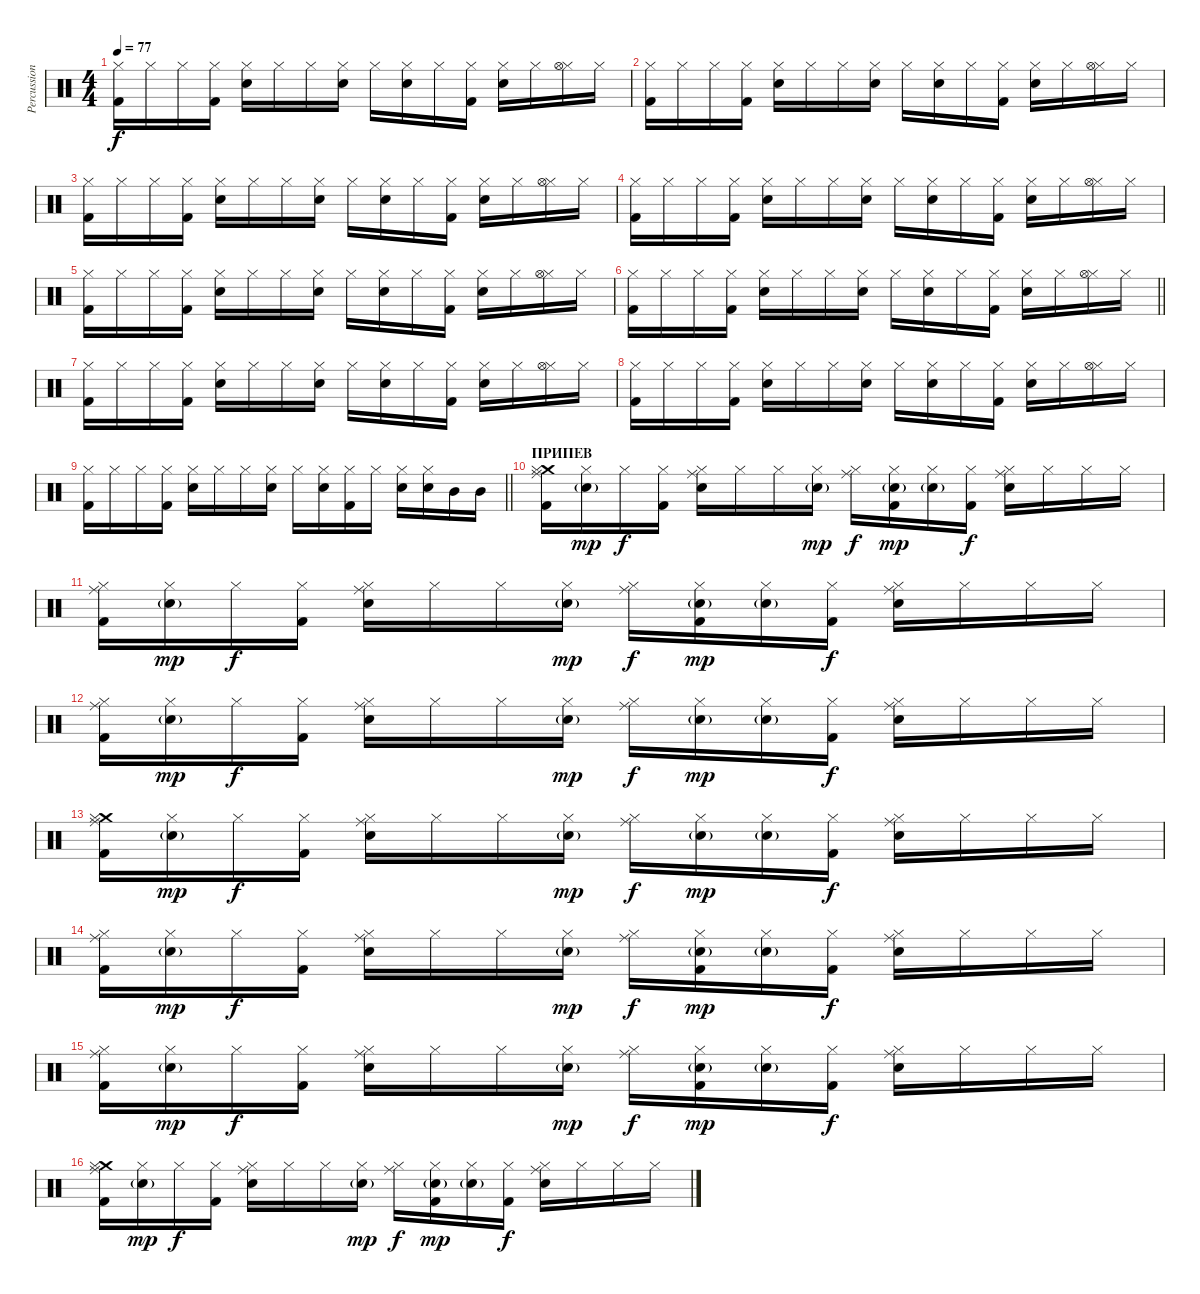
\track ("Percussion" "Percussion") {instrument percussion}
\staff {score}
\articulation defaults
\ts (4 4)
\tempo 77
\clef neutral
\ks c
("Hi-Hat (closed)" "Kick (hit) 2").16{dy f} "Hi-Hat (closed)".16 "Hi-Hat (closed)".16 ("Hi-Hat (closed)" "Kick (hit) 2").16 ("Hi-Hat (closed)" "Electric Snare (hit)").16 "Hi-Hat (closed)".16 "Hi-Hat (closed)".16 ("Hi-Hat (closed)" "Electric Snare (hit)").16 "Hi-Hat (closed)".16 ("Hi-Hat (closed)" "Electric Snare (hit)").16 "Hi-Hat (closed)".16 ("Hi-Hat (closed)" "Kick (hit) 2").16 ("Hi-Hat (closed)" "Electric Snare (hit)").16 "Hi-Hat (closed)".16 ("Hi-Hat (closed)" "Hi-Hat (open)").16 "Hi-Hat (closed)".16 |
("Hi-Hat (closed)" "Kick (hit) 2").16 "Hi-Hat (closed)".16 "Hi-Hat (closed)".16 ("Hi-Hat (closed)" "Kick (hit) 2").16 ("Hi-Hat (closed)" "Electric Snare (hit)").16 "Hi-Hat (closed)".16 "Hi-Hat (closed)".16 ("Hi-Hat (closed)" "Electric Snare (hit)").16 "Hi-Hat (closed)".16 ("Hi-Hat (closed)" "Electric Snare (hit)").16 "Hi-Hat (closed)".16 ("Hi-Hat (closed)" "Kick (hit) 2").16 ("Hi-Hat (closed)" "Electric Snare (hit)").16 "Hi-Hat (closed)".16 ("Hi-Hat (closed)" "Hi-Hat (open)").16 "Hi-Hat (closed)".16 |
("Hi-Hat (closed)" "Kick (hit) 2").16 "Hi-Hat (closed)".16 "Hi-Hat (closed)".16 ("Hi-Hat (closed)" "Kick (hit) 2").16 ("Hi-Hat (closed)" "Electric Snare (hit)").16 "Hi-Hat (closed)".16 "Hi-Hat (closed)".16 ("Hi-Hat (closed)" "Electric Snare (hit)").16 "Hi-Hat (closed)".16 ("Hi-Hat (closed)" "Electric Snare (hit)").16 "Hi-Hat (closed)".16 ("Hi-Hat (closed)" "Kick (hit) 2").16 ("Hi-Hat (closed)" "Electric Snare (hit)").16 "Hi-Hat (closed)".16 ("Hi-Hat (closed)" "Hi-Hat (open)").16 "Hi-Hat (closed)".16 |
("Hi-Hat (closed)" "Kick (hit) 2").16 "Hi-Hat (closed)".16 "Hi-Hat (closed)".16 ("Hi-Hat (closed)" "Kick (hit) 2").16 ("Hi-Hat (closed)" "Electric Snare (hit)").16 "Hi-Hat (closed)".16 "Hi-Hat (closed)".16 ("Hi-Hat (closed)" "Electric Snare (hit)").16 "Hi-Hat (closed)".16 ("Hi-Hat (closed)" "Electric Snare (hit)").16 "Hi-Hat (closed)".16 ("Hi-Hat (closed)" "Kick (hit) 2").16 ("Hi-Hat (closed)" "Electric Snare (hit)").16 "Hi-Hat (closed)".16 ("Hi-Hat (closed)" "Hi-Hat (open)").16 "Hi-Hat (closed)".16 |
("Hi-Hat (closed)" "Kick (hit) 2").16 "Hi-Hat (closed)".16 "Hi-Hat (closed)".16 ("Hi-Hat (closed)" "Kick (hit) 2").16 ("Hi-Hat (closed)" "Electric Snare (hit)").16 "Hi-Hat (closed)".16 "Hi-Hat (closed)".16 ("Hi-Hat (closed)" "Electric Snare (hit)").16 "Hi-Hat (closed)".16 ("Hi-Hat (closed)" "Electric Snare (hit)").16 "Hi-Hat (closed)".16 ("Hi-Hat (closed)" "Kick (hit) 2").16 ("Hi-Hat (closed)" "Electric Snare (hit)").16 "Hi-Hat (closed)".16 ("Hi-Hat (closed)" "Hi-Hat (open)").16 "Hi-Hat (closed)".16 |
\barLineRight lightlight
("Hi-Hat (closed)" "Kick (hit) 2").16 "Hi-Hat (closed)".16 "Hi-Hat (closed)".16 ("Hi-Hat (closed)" "Kick (hit) 2").16 ("Hi-Hat (closed)" "Electric Snare (hit)").16 "Hi-Hat (closed)".16 "Hi-Hat (closed)".16 ("Hi-Hat (closed)" "Electric Snare (hit)").16 "Hi-Hat (closed)".16 ("Hi-Hat (closed)" "Electric Snare (hit)").16 "Hi-Hat (closed)".16 ("Hi-Hat (closed)" "Kick (hit) 2").16 ("Hi-Hat (closed)" "Electric Snare (hit)").16 "Hi-Hat (closed)".16 ("Hi-Hat (closed)" "Hi-Hat (open)").16 "Hi-Hat (closed)".16 |
("Hi-Hat (closed)" "Kick (hit) 2").16 "Hi-Hat (closed)".16 "Hi-Hat (closed)".16 ("Hi-Hat (closed)" "Kick (hit) 2").16 ("Hi-Hat (closed)" "Electric Snare (hit)").16 "Hi-Hat (closed)".16 "Hi-Hat (closed)".16 ("Hi-Hat (closed)" "Electric Snare (hit)").16 "Hi-Hat (closed)".16 ("Hi-Hat (closed)" "Electric Snare (hit)").16 "Hi-Hat (closed)".16 ("Hi-Hat (closed)" "Kick (hit) 2").16 ("Hi-Hat (closed)" "Electric Snare (hit)").16 "Hi-Hat (closed)".16 ("Hi-Hat (closed)" "Hi-Hat (open)").16 "Hi-Hat (closed)".16 |
("Hi-Hat (closed)" "Kick (hit) 2").16 "Hi-Hat (closed)".16 "Hi-Hat (closed)".16 ("Hi-Hat (closed)" "Kick (hit) 2").16 ("Hi-Hat (closed)" "Electric Snare (hit)").16 "Hi-Hat (closed)".16 "Hi-Hat (closed)".16 ("Hi-Hat (closed)" "Electric Snare (hit)").16 "Hi-Hat (closed)".16 ("Hi-Hat (closed)" "Electric Snare (hit)").16 "Hi-Hat (closed)".16 ("Hi-Hat (closed)" "Kick (hit) 2").16 ("Hi-Hat (closed)" "Electric Snare (hit)").16 "Hi-Hat (closed)".16 ("Hi-Hat (closed)" "Hi-Hat (open)").16 "Hi-Hat (closed)".16 |
\barLineRight lightlight
("Hi-Hat (closed)" "Kick (hit) 2").16 "Hi-Hat (closed)".16 "Hi-Hat (closed)".16 ("Hi-Hat (closed)" "Kick (hit) 2").16 ("Hi-Hat (closed)" "Electric Snare (hit)").16 "Hi-Hat (closed)".16 "Hi-Hat (closed)".16 ("Hi-Hat (closed)" "Electric Snare (hit)").16 "Hi-Hat (closed)".16 ("Hi-Hat (closed)" "Electric Snare (hit)").16 ("Hi-Hat (closed)" "Kick (hit) 2").16 "Hi-Hat (closed)".16 ("Hi-Hat (closed)" "Electric Snare (hit)").16 ("Hi-Hat (closed)" "Electric Snare (hit)").16 "Mid Tom (hit)".16 "Mid Tom (hit)".16 |
\section ("" "ПРИПЕВ")
("Crash medium (hit)" "Hi-Hat (closed)" "Ride (middle)" "Kick (hit) 2").16 ("Hi-Hat (closed)" "Electric Snare (hit)"{g}).16{dy mp} "Hi-Hat (closed)".16{dy f} ("Hi-Hat (closed)" "Kick (hit) 2").16 ("Hi-Hat (closed)" "Ride (middle)" "Electric Snare (hit)").16 "Hi-Hat (closed)".16 "Hi-Hat (closed)".16 ("Hi-Hat (closed)" "Electric Snare (hit)"{g}).16{dy mp} ("Hi-Hat (closed)" "Ride (middle)").16{dy f} ("Hi-Hat (closed)" "Electric Snare (hit)"{g} "Kick (hit) 2").16{dy mp} ("Hi-Hat (closed)" "Electric Snare (hit)"{g}).16 ("Hi-Hat (closed)" "Kick (hit) 2").16{dy f} ("Hi-Hat (closed)" "Ride (middle)" "Electric Snare (hit)").16 "Hi-Hat (closed)".16 "Hi-Hat (closed)".16 "Hi-Hat (closed)".16 |
("Hi-Hat (closed)" "Ride (middle)" "Kick (hit) 2").16 ("Hi-Hat (closed)" "Electric Snare (hit)"{g}).16{dy mp} "Hi-Hat (closed)".16{dy f} ("Hi-Hat (closed)" "Kick (hit) 2").16 ("Hi-Hat (closed)" "Ride (middle)" "Electric Snare (hit)").16 "Hi-Hat (closed)".16 "Hi-Hat (closed)".16 ("Hi-Hat (closed)" "Electric Snare (hit)"{g}).16{dy mp} ("Hi-Hat (closed)" "Ride (middle)").16{dy f} ("Hi-Hat (closed)" "Electric Snare (hit)"{g} "Kick (hit) 2").16{dy mp} ("Hi-Hat (closed)" "Electric Snare (hit)"{g}).16 ("Hi-Hat (closed)" "Kick (hit) 2").16{dy f} ("Hi-Hat (closed)" "Ride (middle)" "Electric Snare (hit)").16 "Hi-Hat (closed)".16 "Hi-Hat (closed)".16 "Hi-Hat (closed)".16 |
("Hi-Hat (closed)" "Ride (middle)" "Kick (hit) 2").16 ("Hi-Hat (closed)" "Electric Snare (hit)"{g}).16{dy mp} "Hi-Hat (closed)".16{dy f} ("Hi-Hat (closed)" "Kick (hit) 2").16 ("Hi-Hat (closed)" "Ride (middle)" "Electric Snare (hit)").16 "Hi-Hat (closed)".16 "Hi-Hat (closed)".16 ("Hi-Hat (closed)" "Electric Snare (hit)"{g}).16{dy mp} ("Hi-Hat (closed)" "Ride (middle)").16{dy f} ("Hi-Hat (closed)" "Electric Snare (hit)"{g}).16{dy mp} ("Hi-Hat (closed)" "Electric Snare (hit)"{g}).16 ("Hi-Hat (closed)" "Kick (hit) 2").16{dy f} ("Hi-Hat (closed)" "Ride (middle)" "Electric Snare (hit)").16 "Hi-Hat (closed)".16 "Hi-Hat (closed)".16 "Hi-Hat (closed)".16 |
("Crash medium (hit)" "Hi-Hat (closed)" "Ride (middle)" "Kick (hit) 2").16 ("Hi-Hat (closed)" "Electric Snare (hit)"{g}).16{dy mp} "Hi-Hat (closed)".16{dy f} ("Hi-Hat (closed)" "Kick (hit) 2").16 ("Hi-Hat (closed)" "Ride (middle)" "Electric Snare (hit)").16 "Hi-Hat (closed)".16 "Hi-Hat (closed)".16 ("Hi-Hat (closed)" "Electric Snare (hit)"{g}).16{dy mp} ("Hi-Hat (closed)" "Ride (middle)").16{dy f} ("Hi-Hat (closed)" "Electric Snare (hit)"{g}).16{dy mp} ("Hi-Hat (closed)" "Electric Snare (hit)"{g}).16 ("Hi-Hat (closed)" "Kick (hit) 2").16{dy f} ("Hi-Hat (closed)" "Ride (middle)" "Electric Snare (hit)").16 "Hi-Hat (closed)".16 "Hi-Hat (closed)".16 "Hi-Hat (closed)".16 |
("Hi-Hat (closed)" "Ride (middle)" "Kick (hit) 2").16 ("Hi-Hat (closed)" "Electric Snare (hit)"{g}).16{dy mp} "Hi-Hat (closed)".16{dy f} ("Hi-Hat (closed)" "Kick (hit) 2").16 ("Hi-Hat (closed)" "Ride (middle)" "Electric Snare (hit)").16 "Hi-Hat (closed)".16 "Hi-Hat (closed)".16 ("Hi-Hat (closed)" "Electric Snare (hit)"{g}).16{dy mp} ("Hi-Hat (closed)" "Ride (middle)").16{dy f} ("Hi-Hat (closed)" "Electric Snare (hit)"{g} "Kick (hit) 2").16{dy mp} ("Hi-Hat (closed)" "Electric Snare (hit)"{g}).16 ("Hi-Hat (closed)" "Kick (hit) 2").16{dy f} ("Hi-Hat (closed)" "Ride (middle)" "Electric Snare (hit)").16 "Hi-Hat (closed)".16 "Hi-Hat (closed)".16 "Hi-Hat (closed)".16 |
("Hi-Hat (closed)" "Ride (middle)" "Kick (hit) 2").16 ("Hi-Hat (closed)" "Electric Snare (hit)"{g}).16{dy mp} "Hi-Hat (closed)".16{dy f} ("Hi-Hat (closed)" "Kick (hit) 2").16 ("Hi-Hat (closed)" "Ride (middle)" "Electric Snare (hit)").16 "Hi-Hat (closed)".16 "Hi-Hat (closed)".16 ("Hi-Hat (closed)" "Electric Snare (hit)"{g}).16{dy mp} ("Hi-Hat (closed)" "Ride (middle)").16{dy f} ("Hi-Hat (closed)" "Electric Snare (hit)"{g} "Kick (hit) 2").16{dy mp} ("Hi-Hat (closed)" "Electric Snare (hit)"{g}).16 ("Hi-Hat (closed)" "Kick (hit) 2").16{dy f} ("Hi-Hat (closed)" "Ride (middle)" "Electric Snare (hit)").16 "Hi-Hat (closed)".16 "Hi-Hat (closed)".16 "Hi-Hat (closed)".16 |
("Crash medium (hit)" "Hi-Hat (closed)" "Ride (middle)" "Kick (hit) 2").16 ("Hi-Hat (closed)" "Electric Snare (hit)"{g}).16{dy mp} "Hi-Hat (closed)".16{dy f} ("Hi-Hat (closed)" "Kick (hit) 2").16 ("Hi-Hat (closed)" "Ride (middle)" "Electric Snare (hit)").16 "Hi-Hat (closed)".16 "Hi-Hat (closed)".16 ("Hi-Hat (closed)" "Electric Snare (hit)"{g}).16{dy mp} ("Hi-Hat (closed)" "Ride (middle)").16{dy f} ("Hi-Hat (closed)" "Electric Snare (hit)"{g} "Kick (hit) 2").16{dy mp} ("Hi-Hat (closed)" "Electric Snare (hit)"{g}).16 ("Hi-Hat (closed)" "Kick (hit) 2").16{dy f} ("Hi-Hat (closed)" "Ride (middle)" "Electric Snare (hit)").16 "Hi-Hat (closed)".16 "Hi-Hat (closed)".16 "Hi-Hat (closed)".16
